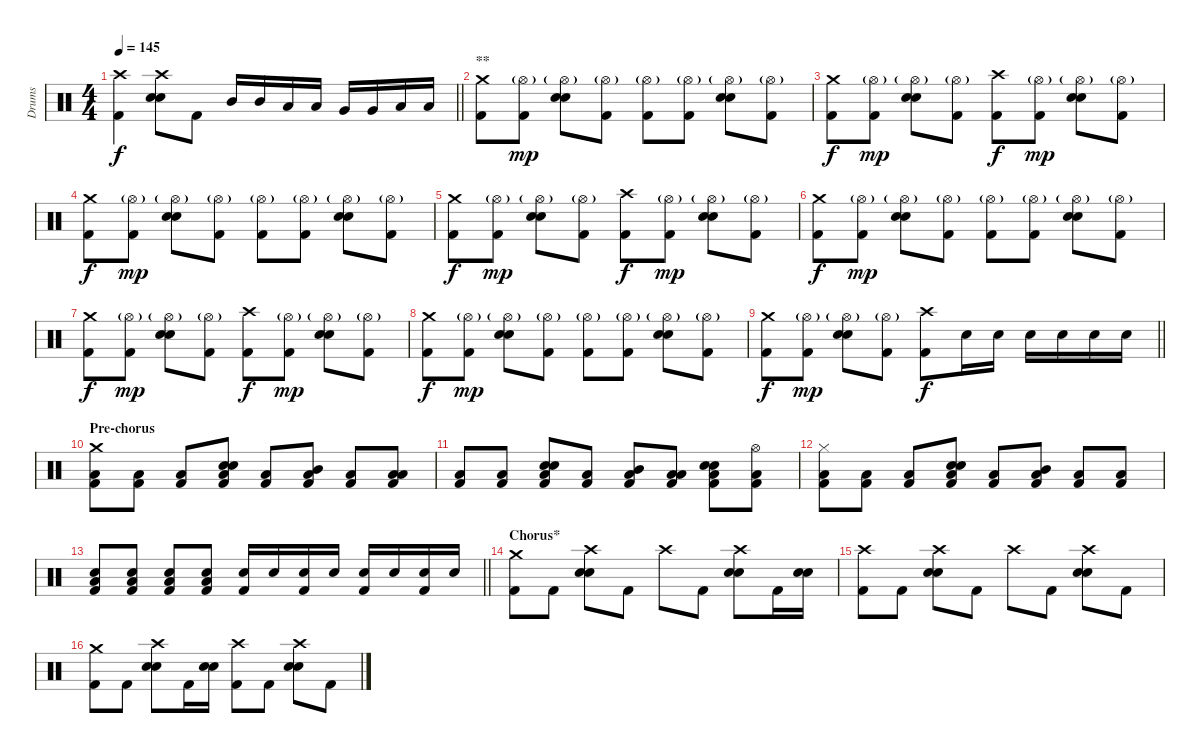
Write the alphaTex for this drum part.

\track ("Drums" "Drums") {instrument percussion}
\staff {score}
\articulation defaults
\ts (4 4)
\tempo 145
\clef neutral
\barLineRight lightlight
\ks c
("Crash high (hit)" "Kick (hit) 2").4{dy f} ("Crash high (hit)" "Electric Snare (hit)" "Electric Snare (hit)").8 "Kick (hit) 2".8 "Mid Tom (hit)".16 "Mid Tom (hit)".16 "Low Tom (hit)".16 "Low Tom (hit)".16 "Very Low Tom (hit)".16 "Very Low Tom (hit)".16 "Low Floor Tom (hit)".16 "Low Floor Tom (hit)".16 |
\section ("" "**")
("Crash medium (hit)" "Kick (hit) 2").8 ("Hi-Hat (open)"{g} "Kick (hit) 2").8{dy mp} ("Hi-Hat (open)"{g} "Electric Snare (hit)" "Electric Snare (hit)").8 ("Hi-Hat (open)"{g} "Kick (hit) 2").8 ("Hi-Hat (open)"{g} "Kick (hit) 2").8 ("Hi-Hat (open)"{g} "Kick (hit) 2").8 ("Hi-Hat (open)"{g} "Electric Snare (hit)" "Electric Snare (hit)").8 ("Hi-Hat (open)"{g} "Kick (hit) 2").8 |
("Crash medium (hit)" "Kick (hit) 2").8{dy f} ("Hi-Hat (open)"{g} "Kick (hit) 2").8{dy mp} ("Hi-Hat (open)"{g} "Electric Snare (hit)" "Electric Snare (hit)").8 ("Hi-Hat (open)"{g} "Kick (hit) 2").8 ("Crash high (hit)" "Kick (hit) 2").8{dy f} ("Hi-Hat (open)"{g} "Kick (hit) 2").8{dy mp} ("Hi-Hat (open)"{g} "Electric Snare (hit)" "Electric Snare (hit)").8 ("Hi-Hat (open)"{g} "Kick (hit) 2").8 |
("Crash medium (hit)" "Kick (hit) 2").8{dy f} ("Hi-Hat (open)"{g} "Kick (hit) 2").8{dy mp} ("Hi-Hat (open)"{g} "Electric Snare (hit)" "Electric Snare (hit)").8 ("Hi-Hat (open)"{g} "Kick (hit) 2").8 ("Hi-Hat (open)"{g} "Kick (hit) 2").8 ("Hi-Hat (open)"{g} "Kick (hit) 2").8 ("Hi-Hat (open)"{g} "Electric Snare (hit)" "Electric Snare (hit)").8 ("Hi-Hat (open)"{g} "Kick (hit) 2").8 |
("Crash medium (hit)" "Kick (hit) 2").8{dy f} ("Hi-Hat (open)"{g} "Kick (hit) 2").8{dy mp} ("Hi-Hat (open)"{g} "Electric Snare (hit)" "Electric Snare (hit)").8 ("Hi-Hat (open)"{g} "Kick (hit) 2").8 ("Crash high (hit)" "Kick (hit) 2").8{dy f} ("Hi-Hat (open)"{g} "Kick (hit) 2").8{dy mp} ("Hi-Hat (open)"{g} "Electric Snare (hit)" "Electric Snare (hit)").8 ("Hi-Hat (open)"{g} "Kick (hit) 2").8 |
("Crash medium (hit)" "Kick (hit) 2").8{dy f} ("Hi-Hat (open)"{g} "Kick (hit) 2").8{dy mp} ("Hi-Hat (open)"{g} "Electric Snare (hit)" "Electric Snare (hit)").8 ("Hi-Hat (open)"{g} "Kick (hit) 2").8 ("Hi-Hat (open)"{g} "Kick (hit) 2").8 ("Hi-Hat (open)"{g} "Kick (hit) 2").8 ("Hi-Hat (open)"{g} "Electric Snare (hit)" "Electric Snare (hit)").8 ("Hi-Hat (open)"{g} "Kick (hit) 2").8 |
("Crash medium (hit)" "Kick (hit) 2").8{dy f} ("Hi-Hat (open)"{g} "Kick (hit) 2").8{dy mp} ("Hi-Hat (open)"{g} "Electric Snare (hit)" "Electric Snare (hit)").8 ("Hi-Hat (open)"{g} "Kick (hit) 2").8 ("Crash high (hit)" "Kick (hit) 2").8{dy f} ("Hi-Hat (open)"{g} "Kick (hit) 2").8{dy mp} ("Hi-Hat (open)"{g} "Electric Snare (hit)" "Electric Snare (hit)").8 ("Hi-Hat (open)"{g} "Kick (hit) 2").8 |
("Crash medium (hit)" "Kick (hit) 2").8{dy f} ("Hi-Hat (open)"{g} "Kick (hit) 2").8{dy mp} ("Hi-Hat (open)"{g} "Electric Snare (hit)" "Electric Snare (hit)").8 ("Hi-Hat (open)"{g} "Kick (hit) 2").8 ("Hi-Hat (open)"{g} "Kick (hit) 2").8 ("Hi-Hat (open)"{g} "Kick (hit) 2").8 ("Hi-Hat (open)"{g} "Electric Snare (hit)" "Electric Snare (hit)").8 ("Hi-Hat (open)"{g} "Kick (hit) 2").8 |
\barLineRight lightlight
("Crash medium (hit)" "Kick (hit) 2").8{dy f} ("Hi-Hat (open)"{g} "Kick (hit) 2").8{dy mp} ("Hi-Hat (open)"{g} "Electric Snare (hit)" "Electric Snare (hit)").8 ("Hi-Hat (open)"{g} "Kick (hit) 2").8 ("Crash high (hit)" "Kick (hit) 2").8{dy f} "Electric Snare (hit)".16 "Electric Snare (hit)".16 "Electric Snare (hit)".16 "Electric Snare (hit)".16 "Electric Snare (hit)".16 "Electric Snare (hit)".16 |
\section ("" "Pre-chorus")
("Crash medium (hit)" "Low Floor Tom (hit)" "Kick (hit) 2").8 ("Low Floor Tom (hit)" "Kick (hit) 2").8 ("Low Floor Tom (hit)" "Kick (hit) 2").8 ("Electric Snare (hit)" "Electric Snare (hit)" "Low Floor Tom (hit)" "Kick (hit) 2").8 ("Low Floor Tom (hit)" "Kick (hit) 2").8 ("Mid Tom (hit)" "Low Floor Tom (hit)" "Kick (hit) 2").8 ("Low Floor Tom (hit)" "Kick (hit) 2").8 ("Low Tom (hit)" "Low Floor Tom (hit)" "Kick (hit) 2").8 |
("Low Floor Tom (hit)" "Kick (hit) 2").8 ("Low Floor Tom (hit)" "Kick (hit) 2").8 ("Electric Snare (hit)" "Electric Snare (hit)" "Low Floor Tom (hit)" "Kick (hit) 2").8 ("Low Floor Tom (hit)" "Kick (hit) 2").8 ("Mid Tom (hit)" "Low Floor Tom (hit)" "Kick (hit) 2").8 ("Low Tom (hit)" "Low Floor Tom (hit)" "Kick (hit) 2").8 ("Electric Snare (hit)" "Electric Snare (hit)" "Low Floor Tom (hit)" "Kick (hit) 2").8 ("Hi-Hat (open)" "Low Floor Tom (hit)" "Kick (hit) 2").8 |
("Hi-Hat (closed)" "Low Floor Tom (hit)" "Kick (hit) 2").8 ("Low Floor Tom (hit)" "Kick (hit) 2").8 ("Low Floor Tom (hit)" "Kick (hit) 2").8 ("Electric Snare (hit)" "Electric Snare (hit)" "Low Floor Tom (hit)" "Kick (hit) 2").8 ("Low Floor Tom (hit)" "Kick (hit) 2").8 ("Mid Tom (hit)" "Low Floor Tom (hit)" "Kick (hit) 2").8 ("Low Floor Tom (hit)" "Kick (hit) 2").8 ("Low Floor Tom (hit)" "Kick (hit) 2").8 |
\barLineRight lightlight
("Electric Snare (hit)" "Low Floor Tom (hit)" "Kick (hit) 2").8 ("Electric Snare (hit)" "Low Floor Tom (hit)" "Kick (hit) 2").8 ("Electric Snare (hit)" "Low Floor Tom (hit)" "Kick (hit) 2").8 ("Electric Snare (hit)" "Low Floor Tom (hit)" "Kick (hit) 2").8 ("Electric Snare (hit)" "Kick (hit) 2").16 "Electric Snare (hit)".16 ("Electric Snare (hit)" "Kick (hit) 2").16 "Electric Snare (hit)".16 ("Electric Snare (hit)" "Kick (hit) 2").16 "Electric Snare (hit)".16 ("Electric Snare (hit)" "Kick (hit) 2").16 "Electric Snare (hit)".16 |
\section ("" "Chorus*")
("Crash medium (hit)" "Kick (hit) 2").8 "Kick (hit) 2".8 ("Crash high (hit)" "Electric Snare (hit)" "Electric Snare (hit)").8 "Kick (hit) 2".8 "Crash high (hit)".8 "Kick (hit) 2".8 ("Crash high (hit)" "Electric Snare (hit)" "Electric Snare (hit)").8 "Kick (hit) 2".16 ("Electric Snare (hit)" "Electric Snare (hit)").16 |
("Crash high (hit)" "Kick (hit) 2").8 "Kick (hit) 2".8 ("Crash high (hit)" "Electric Snare (hit)" "Electric Snare (hit)").8 "Kick (hit) 2".8 "Crash high (hit)".8 "Kick (hit) 2".8 ("Crash high (hit)" "Electric Snare (hit)" "Electric Snare (hit)").8 "Kick (hit) 2".8 |
("Crash medium (hit)" "Kick (hit) 2").8 "Kick (hit) 2".8 ("Crash high (hit)" "Electric Snare (hit)" "Electric Snare (hit)").8 "Kick (hit) 2".16 ("Electric Snare (hit)" "Electric Snare (hit)").16 ("Crash high (hit)" "Kick (hit) 2").8 "Kick (hit) 2".8 ("Crash high (hit)" "Electric Snare (hit)" "Electric Snare (hit)").8 "Kick (hit) 2".8
